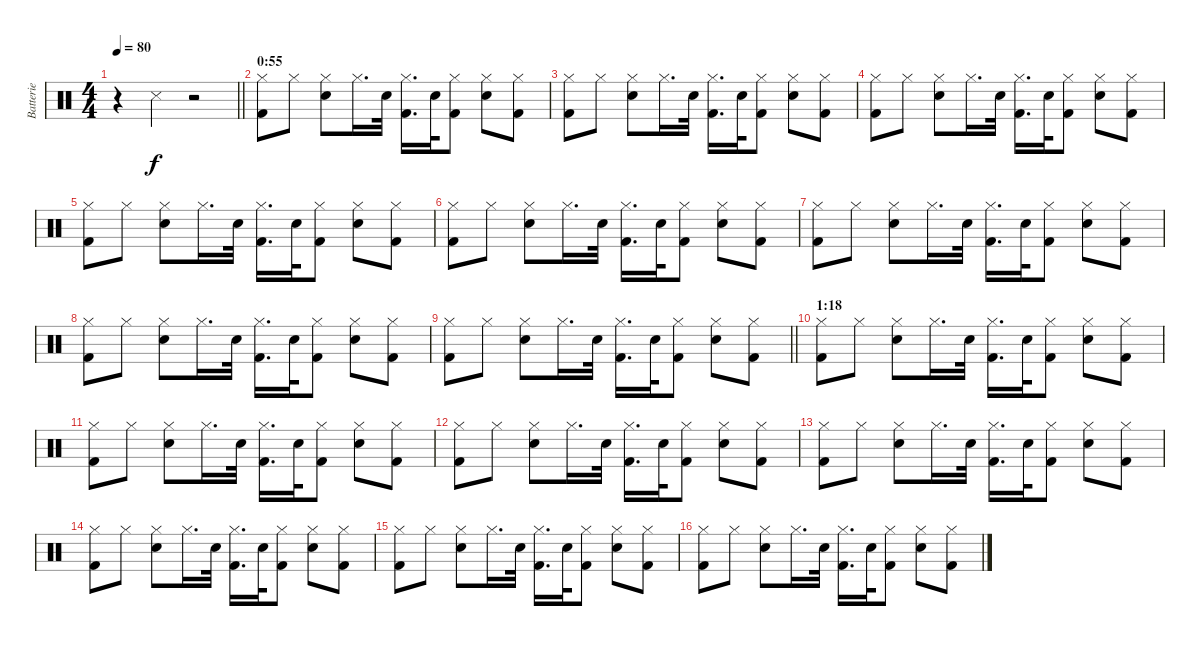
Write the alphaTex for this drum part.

\track ("Batterie" "Batterie") {instrument percussion bank 177}
\staff {score}
\articulation defaults
\ts (4 4)
\tempo 80
\clef neutral
\barLineRight lightlight
\ks c
r.4{dy f} "Snare (side stick) 3".4 r.2 |
\section ("" "0:55")
("Hi-Hat (closed)" "Kick (hit) 2").8 "Hi-Hat (closed)".8 ("Hi-Hat (closed)" "Electric Snare (hit)").8 "Hi-Hat (closed)".16{d} "Electric Snare (hit)".32 ("Hi-Hat (closed)" "Kick (hit) 2").16{d} "Electric Snare (hit)".32 ("Hi-Hat (closed)" "Kick (hit) 2").8 ("Hi-Hat (closed)" "Electric Snare (hit)").8 ("Hi-Hat (closed)" "Kick (hit) 2").8 |
("Hi-Hat (closed)" "Kick (hit) 2").8 "Hi-Hat (closed)".8 ("Hi-Hat (closed)" "Electric Snare (hit)").8 "Hi-Hat (closed)".16{d} "Electric Snare (hit)".32 ("Hi-Hat (closed)" "Kick (hit) 2").16{d} "Electric Snare (hit)".32 ("Hi-Hat (closed)" "Kick (hit) 2").8 ("Hi-Hat (closed)" "Electric Snare (hit)").8 ("Hi-Hat (closed)" "Kick (hit) 2").8 |
("Hi-Hat (closed)" "Kick (hit) 2").8 "Hi-Hat (closed)".8 ("Hi-Hat (closed)" "Electric Snare (hit)").8 "Hi-Hat (closed)".16{d} "Electric Snare (hit)".32 ("Hi-Hat (closed)" "Kick (hit) 2").16{d} "Electric Snare (hit)".32 ("Hi-Hat (closed)" "Kick (hit) 2").8 ("Hi-Hat (closed)" "Electric Snare (hit)").8 ("Hi-Hat (closed)" "Kick (hit) 2").8 |
("Hi-Hat (closed)" "Kick (hit) 2").8 "Hi-Hat (closed)".8 ("Hi-Hat (closed)" "Electric Snare (hit)").8 "Hi-Hat (closed)".16{d} "Electric Snare (hit)".32 ("Hi-Hat (closed)" "Kick (hit) 2").16{d} "Electric Snare (hit)".32 ("Hi-Hat (closed)" "Kick (hit) 2").8 ("Hi-Hat (closed)" "Electric Snare (hit)").8 ("Hi-Hat (closed)" "Kick (hit) 2").8 |
("Hi-Hat (closed)" "Kick (hit) 2").8 "Hi-Hat (closed)".8 ("Hi-Hat (closed)" "Electric Snare (hit)").8 "Hi-Hat (closed)".16{d} "Electric Snare (hit)".32 ("Hi-Hat (closed)" "Kick (hit) 2").16{d} "Electric Snare (hit)".32 ("Hi-Hat (closed)" "Kick (hit) 2").8 ("Hi-Hat (closed)" "Electric Snare (hit)").8 ("Hi-Hat (closed)" "Kick (hit) 2").8 |
("Hi-Hat (closed)" "Kick (hit) 2").8 "Hi-Hat (closed)".8 ("Hi-Hat (closed)" "Electric Snare (hit)").8 "Hi-Hat (closed)".16{d} "Electric Snare (hit)".32 ("Hi-Hat (closed)" "Kick (hit) 2").16{d} "Electric Snare (hit)".32 ("Hi-Hat (closed)" "Kick (hit) 2").8 ("Hi-Hat (closed)" "Electric Snare (hit)").8 ("Hi-Hat (closed)" "Kick (hit) 2").8 |
("Hi-Hat (closed)" "Kick (hit) 2").8 "Hi-Hat (closed)".8 ("Hi-Hat (closed)" "Electric Snare (hit)").8 "Hi-Hat (closed)".16{d} "Electric Snare (hit)".32 ("Hi-Hat (closed)" "Kick (hit) 2").16{d} "Electric Snare (hit)".32 ("Hi-Hat (closed)" "Kick (hit) 2").8 ("Hi-Hat (closed)" "Electric Snare (hit)").8 ("Hi-Hat (closed)" "Kick (hit) 2").8 |
\barLineRight lightlight
("Hi-Hat (closed)" "Kick (hit) 2").8 "Hi-Hat (closed)".8 ("Hi-Hat (closed)" "Electric Snare (hit)").8 "Hi-Hat (closed)".16{d} "Electric Snare (hit)".32 ("Hi-Hat (closed)" "Kick (hit) 2").16{d} "Electric Snare (hit)".32 ("Hi-Hat (closed)" "Kick (hit) 2").8 ("Hi-Hat (closed)" "Electric Snare (hit)").8 ("Hi-Hat (closed)" "Kick (hit) 2").8 |
\section ("" "1:18")
("Hi-Hat (closed)" "Kick (hit) 2").8 "Hi-Hat (closed)".8 ("Hi-Hat (closed)" "Electric Snare (hit)").8 "Hi-Hat (closed)".16{d} "Electric Snare (hit)".32 ("Hi-Hat (closed)" "Kick (hit) 2").16{d} "Electric Snare (hit)".32 ("Hi-Hat (closed)" "Kick (hit) 2").8 ("Hi-Hat (closed)" "Electric Snare (hit)").8 ("Hi-Hat (closed)" "Kick (hit) 2").8 |
("Hi-Hat (closed)" "Kick (hit) 2").8 "Hi-Hat (closed)".8 ("Hi-Hat (closed)" "Electric Snare (hit)").8 "Hi-Hat (closed)".16{d} "Electric Snare (hit)".32 ("Hi-Hat (closed)" "Kick (hit) 2").16{d} "Electric Snare (hit)".32 ("Hi-Hat (closed)" "Kick (hit) 2").8 ("Hi-Hat (closed)" "Electric Snare (hit)").8 ("Hi-Hat (closed)" "Kick (hit) 2").8 |
("Hi-Hat (closed)" "Kick (hit) 2").8 "Hi-Hat (closed)".8 ("Hi-Hat (closed)" "Electric Snare (hit)").8 "Hi-Hat (closed)".16{d} "Electric Snare (hit)".32 ("Hi-Hat (closed)" "Kick (hit) 2").16{d} "Electric Snare (hit)".32 ("Hi-Hat (closed)" "Kick (hit) 2").8 ("Hi-Hat (closed)" "Electric Snare (hit)").8 ("Hi-Hat (closed)" "Kick (hit) 2").8 |
("Hi-Hat (closed)" "Kick (hit) 2").8 "Hi-Hat (closed)".8 ("Hi-Hat (closed)" "Electric Snare (hit)").8 "Hi-Hat (closed)".16{d} "Electric Snare (hit)".32 ("Hi-Hat (closed)" "Kick (hit) 2").16{d} "Electric Snare (hit)".32 ("Hi-Hat (closed)" "Kick (hit) 2").8 ("Hi-Hat (closed)" "Electric Snare (hit)").8 ("Hi-Hat (closed)" "Kick (hit) 2").8 |
("Hi-Hat (closed)" "Kick (hit) 2").8 "Hi-Hat (closed)".8 ("Hi-Hat (closed)" "Electric Snare (hit)").8 "Hi-Hat (closed)".16{d} "Electric Snare (hit)".32 ("Hi-Hat (closed)" "Kick (hit) 2").16{d} "Electric Snare (hit)".32 ("Hi-Hat (closed)" "Kick (hit) 2").8 ("Hi-Hat (closed)" "Electric Snare (hit)").8 ("Hi-Hat (closed)" "Kick (hit) 2").8 |
("Hi-Hat (closed)" "Kick (hit) 2").8 "Hi-Hat (closed)".8 ("Hi-Hat (closed)" "Electric Snare (hit)").8 "Hi-Hat (closed)".16{d} "Electric Snare (hit)".32 ("Hi-Hat (closed)" "Kick (hit) 2").16{d} "Electric Snare (hit)".32 ("Hi-Hat (closed)" "Kick (hit) 2").8 ("Hi-Hat (closed)" "Electric Snare (hit)").8 ("Hi-Hat (closed)" "Kick (hit) 2").8 |
("Hi-Hat (closed)" "Kick (hit) 2").8 "Hi-Hat (closed)".8 ("Hi-Hat (closed)" "Electric Snare (hit)").8 "Hi-Hat (closed)".16{d} "Electric Snare (hit)".32 ("Hi-Hat (closed)" "Kick (hit) 2").16{d} "Electric Snare (hit)".32 ("Hi-Hat (closed)" "Kick (hit) 2").8 ("Hi-Hat (closed)" "Electric Snare (hit)").8 ("Hi-Hat (closed)" "Kick (hit) 2").8
